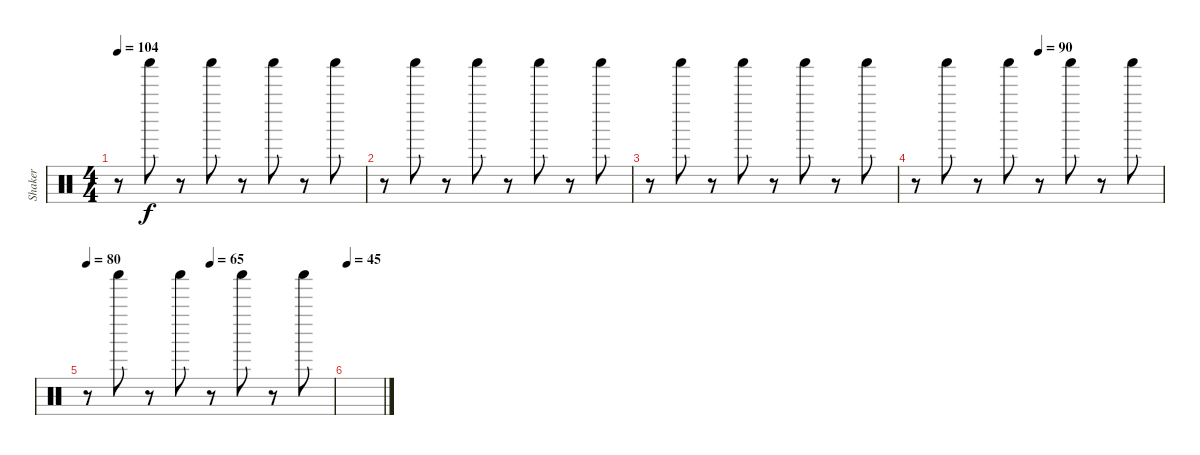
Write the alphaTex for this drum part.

\track ("Shaker" "Shaker") {instrument percussion}
\staff {score}
\articulation defaults
\ts (4 4)
\tempo 104
\clef neutral
\ks c
r.8{dy f} "Shaker (hit)".8 r.8 "Shaker (hit)".8 r.8 "Shaker (hit)".8 r.8 "Shaker (hit)".8 |
r.8 "Shaker (hit)".8 r.8 "Shaker (hit)".8 r.8 "Shaker (hit)".8 r.8 "Shaker (hit)".8 |
r.8 "Shaker (hit)".8 r.8 "Shaker (hit)".8 r.8 "Shaker (hit)".8 r.8 "Shaker (hit)".8 |
\tempo (90 0.5)
r.8 "Shaker (hit)".8 r.8 "Shaker (hit)".8 r.8 "Shaker (hit)".8 r.8 "Shaker (hit)".8 |
\tempo 80
\tempo (65 0.5)
r.8 "Shaker (hit)".8 r.8 "Shaker (hit)".8 r.8 "Shaker (hit)".8 r.8 "Shaker (hit)".8 |
\tempo 45
